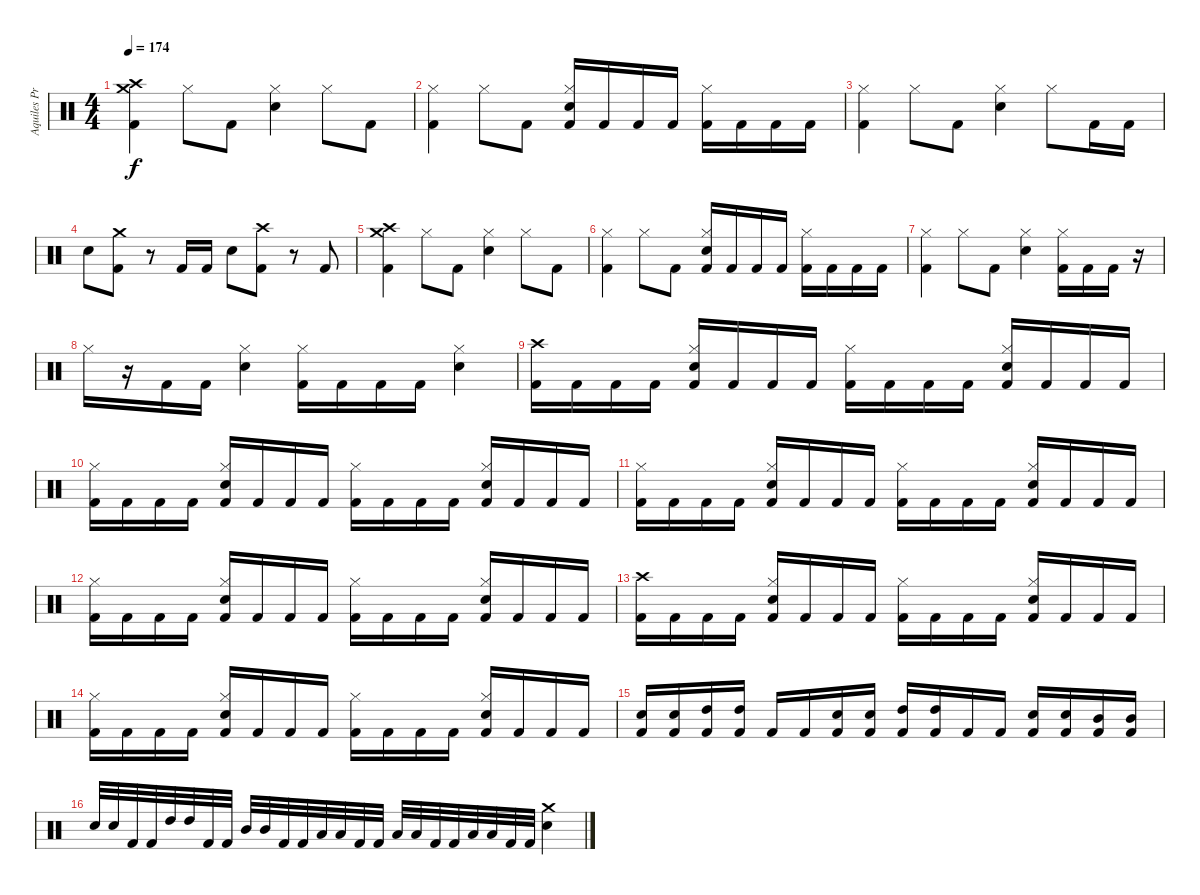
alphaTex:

\track ("Aquiles Priester" "Aquiles Pr") {instrument percussion}
\staff {score}
\articulation defaults
\ts (4 4)
\tempo 174
\clef neutral
\ks c
("Crash high (hit)" "Crash medium (hit)" "Kick (hit) 2").4{dy f} "Hi-Hat (closed)".8 "Kick (hit) 2".8 ("Hi-Hat (closed)" "Electric Snare (hit)").4 "Hi-Hat (closed)".8 "Kick (hit) 2".8 |
("Hi-Hat (closed)" "Kick (hit) 2").4 "Hi-Hat (closed)".8 "Kick (hit) 2".8 ("Hi-Hat (closed)" "Electric Snare (hit)" "Kick (hit) 2").16 "Kick (hit) 2".16 "Kick (hit) 2".16 "Kick (hit) 2".16 ("Hi-Hat (closed)" "Kick (hit) 2").16 "Kick (hit) 2".16 "Kick (hit) 2".16 "Kick (hit) 2".16 |
("Hi-Hat (closed)" "Kick (hit) 2").4 "Hi-Hat (closed)".8 "Kick (hit) 2".8 ("Hi-Hat (closed)" "Electric Snare (hit)").4 "Hi-Hat (closed)".8 "Kick (hit) 2".16 "Kick (hit) 2".16 |
"Electric Snare (hit)".8 ("Crash medium (hit)" "Kick (hit) 2").8 r.8 "Kick (hit) 2".16 "Kick (hit) 2".16 "Electric Snare (hit)".8 ("Crash high (hit)" "Kick (hit) 2").8 r.8 "Kick (hit) 2".8 |
("Crash high (hit)" "Crash medium (hit)" "Kick (hit) 2").4 "Hi-Hat (closed)".8 "Kick (hit) 2".8 ("Hi-Hat (closed)" "Electric Snare (hit)").4 "Hi-Hat (closed)".8 "Kick (hit) 2".8 |
("Hi-Hat (closed)" "Kick (hit) 2").4 "Hi-Hat (closed)".8 "Kick (hit) 2".8 ("Hi-Hat (closed)" "Electric Snare (hit)" "Kick (hit) 2").16 "Kick (hit) 2".16 "Kick (hit) 2".16 "Kick (hit) 2".16 ("Hi-Hat (closed)" "Kick (hit) 2").16 "Kick (hit) 2".16 "Kick (hit) 2".16 "Kick (hit) 2".16 |
("Hi-Hat (closed)" "Kick (hit) 2").4 "Hi-Hat (closed)".8 "Kick (hit) 2".8 ("Hi-Hat (closed)" "Electric Snare (hit)").4 ("Hi-Hat (closed)" "Kick (hit) 2").16 "Kick (hit) 2".16 "Kick (hit) 2".16 r.16 |
"Hi-Hat (closed)".16 r.16 "Kick (hit) 2".16 "Kick (hit) 2".16 ("Hi-Hat (closed)" "Electric Snare (hit)").4 ("Hi-Hat (closed)" "Kick (hit) 2").16 "Kick (hit) 2".16 "Kick (hit) 2".16 "Kick (hit) 2".16 ("Hi-Hat (closed)" "Electric Snare (hit)").4 |
("Crash high (hit)" "Kick (hit) 2").16 "Kick (hit) 2".16 "Kick (hit) 2".16 "Kick (hit) 2".16 ("Hi-Hat (closed)" "Electric Snare (hit)" "Kick (hit) 2").16 "Kick (hit) 2".16 "Kick (hit) 2".16 "Kick (hit) 2".16 ("Hi-Hat (closed)" "Kick (hit) 2").16 "Kick (hit) 2".16 "Kick (hit) 2".16 "Kick (hit) 2".16 ("Hi-Hat (closed)" "Electric Snare (hit)" "Kick (hit) 2").16 "Kick (hit) 2".16 "Kick (hit) 2".16 "Kick (hit) 2".16 |
("Hi-Hat (closed)" "Kick (hit) 2").16 "Kick (hit) 2".16 "Kick (hit) 2".16 "Kick (hit) 2".16 ("Hi-Hat (closed)" "Electric Snare (hit)" "Kick (hit) 2").16 "Kick (hit) 2".16 "Kick (hit) 2".16 "Kick (hit) 2".16 ("Hi-Hat (closed)" "Kick (hit) 2").16 "Kick (hit) 2".16 "Kick (hit) 2".16 "Kick (hit) 2".16 ("Hi-Hat (closed)" "Electric Snare (hit)" "Kick (hit) 2").16 "Kick (hit) 2".16 "Kick (hit) 2".16 "Kick (hit) 2".16 |
("Hi-Hat (closed)" "Kick (hit) 2").16 "Kick (hit) 2".16 "Kick (hit) 2".16 "Kick (hit) 2".16 ("Hi-Hat (closed)" "Electric Snare (hit)" "Kick (hit) 2").16 "Kick (hit) 2".16 "Kick (hit) 2".16 "Kick (hit) 2".16 ("Hi-Hat (closed)" "Kick (hit) 2").16 "Kick (hit) 2".16 "Kick (hit) 2".16 "Kick (hit) 2".16 ("Hi-Hat (closed)" "Electric Snare (hit)" "Kick (hit) 2").16 "Kick (hit) 2".16 "Kick (hit) 2".16 "Kick (hit) 2".16 |
("Hi-Hat (closed)" "Kick (hit) 2").16 "Kick (hit) 2".16 "Kick (hit) 2".16 "Kick (hit) 2".16 ("Hi-Hat (closed)" "Electric Snare (hit)" "Kick (hit) 2").16 "Kick (hit) 2".16 "Kick (hit) 2".16 "Kick (hit) 2".16 ("Hi-Hat (closed)" "Kick (hit) 2").16 "Kick (hit) 2".16 "Kick (hit) 2".16 "Kick (hit) 2".16 ("Hi-Hat (closed)" "Electric Snare (hit)" "Kick (hit) 2").16 "Kick (hit) 2".16 "Kick (hit) 2".16 "Kick (hit) 2".16 |
("Crash high (hit)" "Kick (hit) 2").16 "Kick (hit) 2".16 "Kick (hit) 2".16 "Kick (hit) 2".16 ("Hi-Hat (closed)" "Electric Snare (hit)" "Kick (hit) 2").16 "Kick (hit) 2".16 "Kick (hit) 2".16 "Kick (hit) 2".16 ("Hi-Hat (closed)" "Kick (hit) 2").16 "Kick (hit) 2".16 "Kick (hit) 2".16 "Kick (hit) 2".16 ("Hi-Hat (closed)" "Electric Snare (hit)" "Kick (hit) 2").16 "Kick (hit) 2".16 "Kick (hit) 2".16 "Kick (hit) 2".16 |
("Hi-Hat (closed)" "Kick (hit) 2").16 "Kick (hit) 2".16 "Kick (hit) 2".16 "Kick (hit) 2".16 ("Hi-Hat (closed)" "Electric Snare (hit)" "Kick (hit) 2").16 "Kick (hit) 2".16 "Kick (hit) 2".16 "Kick (hit) 2".16 ("Hi-Hat (closed)" "Kick (hit) 2").16 "Kick (hit) 2".16 "Kick (hit) 2".16 "Kick (hit) 2".16 ("Hi-Hat (closed)" "Electric Snare (hit)" "Kick (hit) 2").16 "Kick (hit) 2".16 "Kick (hit) 2".16 "Kick (hit) 2".16 |
("Electric Snare (hit)" "Kick (hit) 2").16 ("Electric Snare (hit)" "Kick (hit) 2").16 ("High Tom (hit)" "Kick (hit) 2").16 ("High Tom (hit)" "Kick (hit) 2").16 "Kick (hit) 2".16 "Kick (hit) 2".16 ("Electric Snare (hit)" "Kick (hit) 2").16 ("Electric Snare (hit)" "Kick (hit) 2").16 ("High Tom (hit)" "Kick (hit) 2").16 ("High Tom (hit)" "Kick (hit) 2").16 "Kick (hit) 2".16 "Kick (hit) 2".16 ("Electric Snare (hit)" "Kick (hit) 2").16 ("Electric Snare (hit)" "Kick (hit) 2").16 ("Mid Tom (hit)" "Kick (hit) 2").16 ("Mid Tom (hit)" "Kick (hit) 2").16 |
"Electric Snare (hit)".32 "Electric Snare (hit)".32 "Kick (hit) 2".32 "Kick (hit) 2".32 "High Tom (hit)".32 "High Tom (hit)".32 "Kick (hit) 2".32 "Kick (hit) 2".32 "Mid Tom (hit)".32 "Mid Tom (hit)".32 "Kick (hit) 2".32 "Kick (hit) 2".32 "Low Tom (hit)".32 "Low Tom (hit)".32 "Kick (hit) 2".32 "Kick (hit) 2".32 "Low Floor Tom (hit)".32 "Low Floor Tom (hit)".32 "Kick (hit) 2".32 "Kick (hit) 2".32 "Low Floor Tom (hit)".32 "Low Floor Tom (hit)".32 "Kick (hit) 2".32 "Kick (hit) 2".32 ("Crash medium (hit)" "Electric Snare (hit)").4
